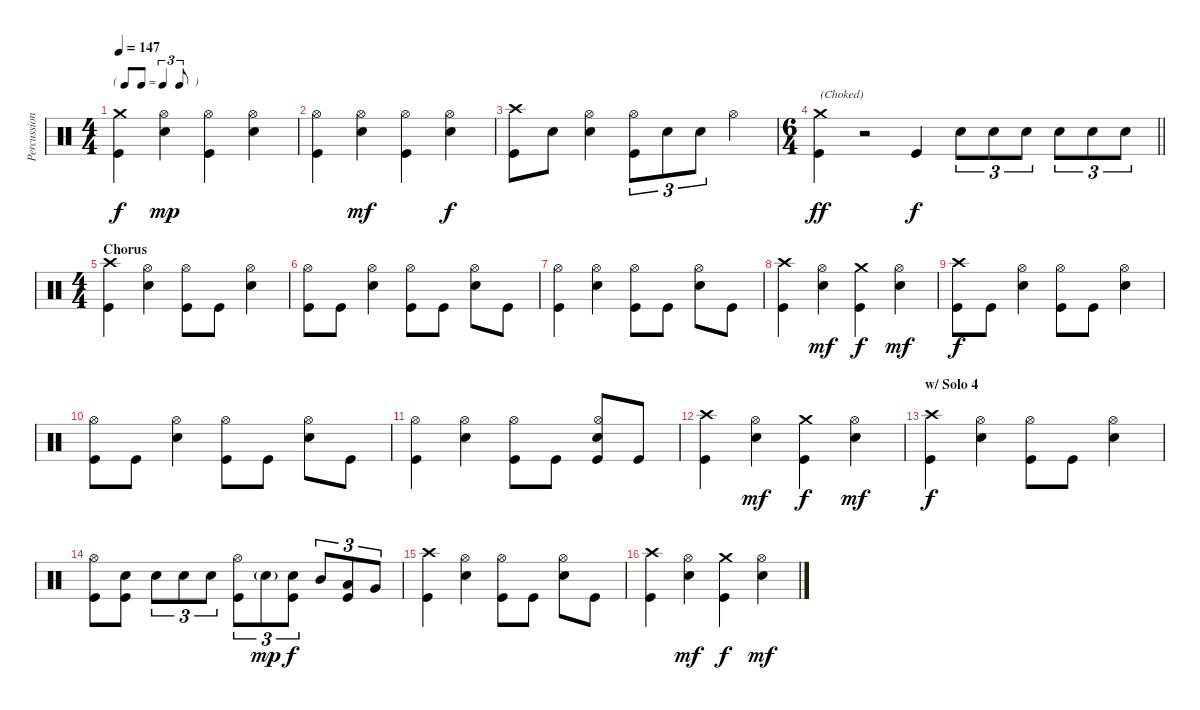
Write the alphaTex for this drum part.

\track ("Percussion" "Percussion") {instrument percussion}
\staff {score}
\articulation defaults
\ts (4 4)
\tf triplet8th
\tempo 147
\clef neutral
\ks c
("Kick (hit)" "Crash medium (hit)").4{dy f} ("Hi-Hat (open)" "Snare (hit) 2").4{dy mp} ("Kick (hit)" "Hi-Hat (open)").4 ("Hi-Hat (open)" "Snare (hit) 2").4 |
("Kick (hit)" "Hi-Hat (open)").4 ("Hi-Hat (open)" "Snare (hit) 2").4{dy mf} ("Kick (hit)" "Hi-Hat (open)").4 ("Hi-Hat (open)" "Snare (hit) 2").4{dy f} |
("Kick (hit)" "Crash high (hit)").8 "Snare (hit) 2".8 ("Hi-Hat (open)" "Snare (hit) 2").4 ("Kick (hit)" "Hi-Hat (open)").8{tu (3 2)} "Snare (hit) 2".8{tu (3 2)} "Snare (hit) 2".8{tu (3 2)} "Hi-Hat (open)".4 |
\ts (6 4)
\barLineRight lightlight
("Kick (hit)" "Crash medium (hit)").4{txt "(Choked)" dy ff} r.2{volume 0} "Kick (hit)".4{dy f volume 13} "Snare (hit) 2".8{tu (3 2)} "Snare (hit) 2".8{tu (3 2)} "Snare (hit) 2".8{tu (3 2)} "Snare (hit) 2".8{tu (3 2)} "Snare (hit) 2".8{tu (3 2)} "Snare (hit) 2".8{tu (3 2)} |
\ts (4 4)
\section ("" "Chorus")
("Kick (hit)" "Crash high (hit)").4 ("Hi-Hat (open)" "Snare (hit) 2").4 ("Kick (hit)" "Hi-Hat (open)").8 "Kick (hit)".8 ("Hi-Hat (open)" "Snare (hit) 2").4 |
("Kick (hit)" "Hi-Hat (open)").8 "Kick (hit)".8 ("Hi-Hat (open)" "Snare (hit) 2").4 ("Kick (hit)" "Hi-Hat (open)").8 "Kick (hit)".8 ("Hi-Hat (open)" "Snare (hit) 2").8 "Kick (hit)".8 |
("Kick (hit)" "Hi-Hat (open)").4 ("Hi-Hat (open)" "Snare (hit) 2").4 ("Kick (hit)" "Hi-Hat (open)").8 "Kick (hit)".8 ("Hi-Hat (open)" "Snare (hit) 2").8 "Kick (hit)".8 |
("Kick (hit)" "Crash high (hit)").4 ("Hi-Hat (open)" "Snare (hit) 2").4{dy mf} ("Kick (hit)" "Crash medium (hit)").4{dy f} ("Hi-Hat (open)" "Snare (hit) 2").4{dy mf} |
("Kick (hit)" "Crash high (hit)").8{dy f} "Kick (hit)".8 ("Hi-Hat (open)" "Snare (hit) 2").4 ("Kick (hit)" "Hi-Hat (open)").8 "Kick (hit)".8 ("Hi-Hat (open)" "Snare (hit) 2").4 |
("Kick (hit)" "Hi-Hat (open)").8 "Kick (hit)".8 ("Hi-Hat (open)" "Snare (hit) 2").4 ("Kick (hit)" "Hi-Hat (open)").8 "Kick (hit)".8 ("Hi-Hat (open)" "Snare (hit) 2").8 "Kick (hit)".8 |
("Kick (hit)" "Hi-Hat (open)").4 ("Hi-Hat (open)" "Snare (hit) 2").4 ("Kick (hit)" "Hi-Hat (open)").8 "Kick (hit)".8 ("Kick (hit)" "Hi-Hat (open)" "Snare (hit) 2").8 "Kick (hit)".8 |
("Kick (hit)" "Crash high (hit)").4 ("Hi-Hat (open)" "Snare (hit) 2").4{dy mf} ("Kick (hit)" "Crash medium (hit)").4{dy f} ("Hi-Hat (open)" "Snare (hit) 2").4{dy mf} |
\section ("" "w/ Solo 4")
("Kick (hit)" "Crash high (hit)").4{dy f} ("Hi-Hat (open)" "Snare (hit) 2").4 ("Kick (hit)" "Hi-Hat (open)").8 "Kick (hit)".8 ("Hi-Hat (open)" "Snare (hit) 2").4 |
("Kick (hit)" "Hi-Hat (open)").8 ("Kick (hit)" "Snare (hit) 2").8 "Snare (hit) 2".8{tu (3 2)} "Snare (hit) 2".8{tu (3 2)} "Snare (hit) 2".8{tu (3 2)} ("Kick (hit)" "Hi-Hat (open)").8{tu (3 2)} "Snare (hit) 2"{g}.8{tu (3 2) dy mp} ("Kick (hit)" "Snare (hit) 2").8{tu (3 2) dy f} "Mid Tom (hit)".8{tu (3 2)} ("Kick (hit)" "Low Tom (hit)").8{tu (3 2)} "Very Low Tom (hit)".8{tu (3 2)} |
("Kick (hit)" "Crash high (hit)").4 ("Hi-Hat (open)" "Snare (hit) 2").4 ("Kick (hit)" "Hi-Hat (open)").8 "Kick (hit)".8 ("Hi-Hat (open)" "Snare (hit) 2").8 "Kick (hit)".8 |
("Kick (hit)" "Crash high (hit)").4 ("Hi-Hat (open)" "Snare (hit) 2").4{dy mf} ("Kick (hit)" "Crash medium (hit)").4{dy f} ("Hi-Hat (open)" "Snare (hit) 2").4{dy mf}
